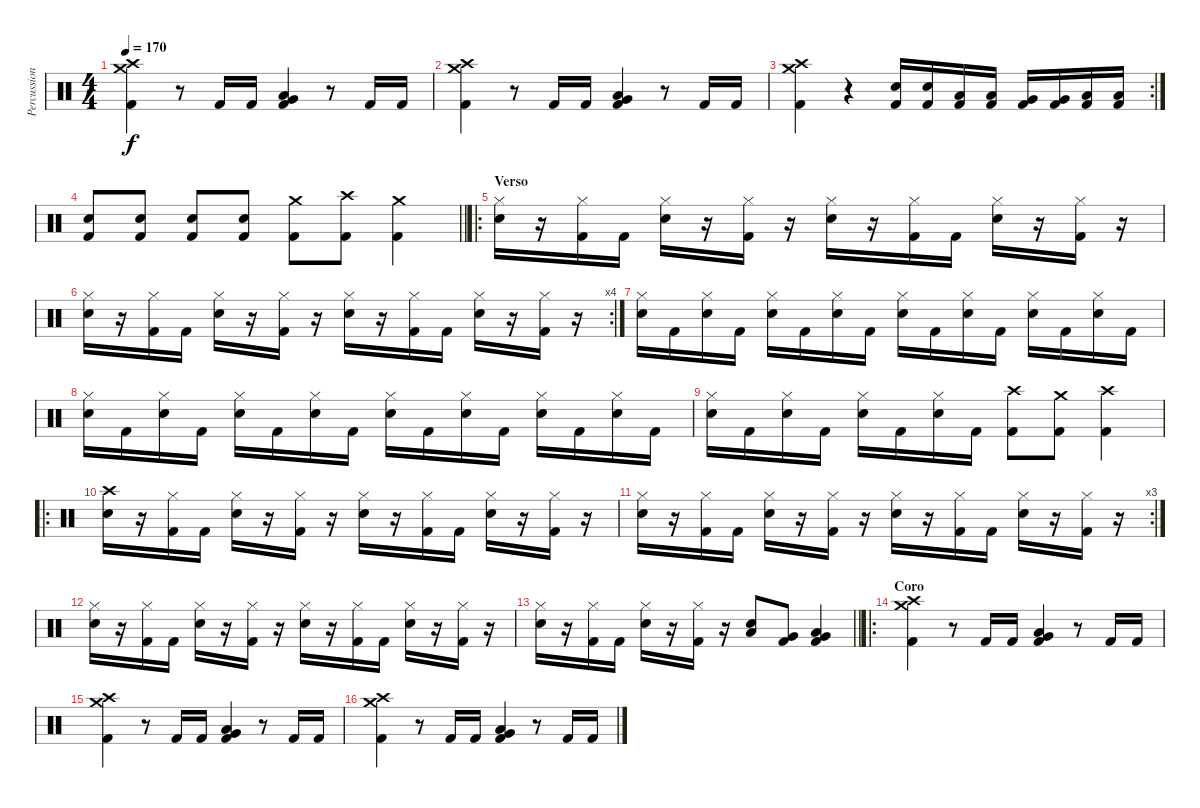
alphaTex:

\track ("Percussion" "Percussion") {instrument percussion}
\staff {score}
\articulation defaults
\ts (4 4)
\tempo 170
\clef neutral
\ks c
("Crash high (hit)" "Crash medium (hit)" "Kick (hit) 2").4{dy f} r.8 "Kick (hit) 2".16 "Kick (hit) 2".16 ("Very Low Tom (hit)" "Low Floor Tom (hit)" "Kick (hit) 2").4 r.8 "Kick (hit) 2".16 "Kick (hit) 2".16 |
("Crash high (hit)" "Crash medium (hit)" "Kick (hit) 2").4 r.8 "Kick (hit) 2".16 "Kick (hit) 2".16 ("Very Low Tom (hit)" "Low Floor Tom (hit)" "Kick (hit) 2").4 r.8 "Kick (hit) 2".16 "Kick (hit) 2".16 |
\rc 2
("Crash high (hit)" "Crash medium (hit)" "Kick (hit) 2").4 r.4 ("Snare (hit) 2" "Kick (hit) 2").16 ("Snare (hit) 2" "Kick (hit) 2").16 ("Low Tom (hit)" "Kick (hit) 2").16 ("Low Tom (hit)" "Kick (hit) 2").16 ("Very Low Tom (hit)" "Kick (hit) 2").16 ("Very Low Tom (hit)" "Kick (hit) 2").16 ("Low Floor Tom (hit)" "Kick (hit) 2").16 ("Low Floor Tom (hit)" "Kick (hit) 2").16 |
\barLineRight lightlight
("Snare (hit) 2" "Kick (hit) 2").8 ("Snare (hit) 2" "Kick (hit) 2").8 ("Snare (hit) 2" "Kick (hit) 2").8 ("Snare (hit) 2" "Kick (hit) 2").8 ("Crash medium (hit)" "Kick (hit) 2").8 ("Crash high (hit)" "Kick (hit) 2").8 ("Crash medium (hit)" "Kick (hit) 2").4 |
\ro
\section ("" "Verso")
("Hi-Hat (closed)" "Snare (hit) 2").16 r.16 ("Hi-Hat (closed)" "Kick (hit) 2").16 "Kick (hit) 2".16 ("Hi-Hat (closed)" "Snare (hit) 2").16 r.16 ("Hi-Hat (closed)" "Kick (hit) 2").16 r.16 ("Hi-Hat (closed)" "Snare (hit) 2").16 r.16 ("Hi-Hat (closed)" "Kick (hit) 2").16 "Kick (hit) 2".16 ("Hi-Hat (closed)" "Snare (hit) 2").16 r.16 ("Hi-Hat (closed)" "Kick (hit) 2").16 r.16 |
\rc 4
("Hi-Hat (closed)" "Snare (hit) 2").16 r.16 ("Hi-Hat (closed)" "Kick (hit) 2").16 "Kick (hit) 2".16 ("Hi-Hat (closed)" "Snare (hit) 2").16 r.16 ("Hi-Hat (closed)" "Kick (hit) 2").16 r.16 ("Hi-Hat (closed)" "Snare (hit) 2").16 r.16 ("Hi-Hat (closed)" "Kick (hit) 2").16 "Kick (hit) 2".16 ("Hi-Hat (closed)" "Snare (hit) 2").16 r.16 ("Hi-Hat (closed)" "Kick (hit) 2").16 r.16 |
("Hi-Hat (closed)" "Snare (hit) 2").16 "Kick (hit) 2".16 ("Hi-Hat (closed)" "Snare (hit) 2").16 "Kick (hit) 2".16 ("Hi-Hat (closed)" "Snare (hit) 2").16 "Kick (hit) 2".16 ("Hi-Hat (closed)" "Snare (hit) 2").16 "Kick (hit) 2".16 ("Hi-Hat (closed)" "Snare (hit) 2").16 "Kick (hit) 2".16 ("Hi-Hat (closed)" "Snare (hit) 2").16 "Kick (hit) 2".16 ("Hi-Hat (closed)" "Snare (hit) 2").16 "Kick (hit) 2".16 ("Hi-Hat (closed)" "Snare (hit) 2").16 "Kick (hit) 2".16 |
("Hi-Hat (closed)" "Snare (hit) 2").16 "Kick (hit) 2".16 ("Hi-Hat (closed)" "Snare (hit) 2").16 "Kick (hit) 2".16 ("Hi-Hat (closed)" "Snare (hit) 2").16 "Kick (hit) 2".16 ("Hi-Hat (closed)" "Snare (hit) 2").16 "Kick (hit) 2".16 ("Hi-Hat (closed)" "Snare (hit) 2").16 "Kick (hit) 2".16 ("Hi-Hat (closed)" "Snare (hit) 2").16 "Kick (hit) 2".16 ("Hi-Hat (closed)" "Snare (hit) 2").16 "Kick (hit) 2".16 ("Hi-Hat (closed)" "Snare (hit) 2").16 "Kick (hit) 2".16 |
("Hi-Hat (closed)" "Snare (hit) 2").16 "Kick (hit) 2".16 ("Hi-Hat (closed)" "Snare (hit) 2").16 "Kick (hit) 2".16 ("Hi-Hat (closed)" "Snare (hit) 2").16 "Kick (hit) 2".16 ("Hi-Hat (closed)" "Snare (hit) 2").16 "Kick (hit) 2".16 ("Kick (hit) 2" "Crash high (hit)").8 ("Kick (hit) 2" "Crash medium (hit)").8 ("Kick (hit) 2" "Crash high (hit)").4 |
\ro
("Crash high (hit)" "Snare (hit) 2").16 r.16 ("Hi-Hat (closed)" "Kick (hit) 2").16 "Kick (hit) 2".16 ("Hi-Hat (closed)" "Snare (hit) 2").16 r.16 ("Hi-Hat (closed)" "Kick (hit) 2").16 r.16 ("Hi-Hat (closed)" "Snare (hit) 2").16 r.16 ("Hi-Hat (closed)" "Kick (hit) 2").16 "Kick (hit) 2".16 ("Hi-Hat (closed)" "Snare (hit) 2").16 r.16 ("Hi-Hat (closed)" "Kick (hit) 2").16 r.16 |
\rc 3
("Hi-Hat (closed)" "Snare (hit) 2").16 r.16 ("Hi-Hat (closed)" "Kick (hit) 2").16 "Kick (hit) 2".16 ("Hi-Hat (closed)" "Snare (hit) 2").16 r.16 ("Hi-Hat (closed)" "Kick (hit) 2").16 r.16 ("Hi-Hat (closed)" "Snare (hit) 2").16 r.16 ("Hi-Hat (closed)" "Kick (hit) 2").16 "Kick (hit) 2".16 ("Hi-Hat (closed)" "Snare (hit) 2").16 r.16 ("Hi-Hat (closed)" "Kick (hit) 2").16 r.16 |
("Hi-Hat (closed)" "Snare (hit) 2").16 r.16 ("Hi-Hat (closed)" "Kick (hit) 2").16 "Kick (hit) 2".16 ("Hi-Hat (closed)" "Snare (hit) 2").16 r.16 ("Hi-Hat (closed)" "Kick (hit) 2").16 r.16 ("Hi-Hat (closed)" "Snare (hit) 2").16 r.16 ("Hi-Hat (closed)" "Kick (hit) 2").16 "Kick (hit) 2".16 ("Hi-Hat (closed)" "Snare (hit) 2").16 r.16 ("Hi-Hat (closed)" "Kick (hit) 2").16 r.16 |
\barLineRight lightlight
("Hi-Hat (closed)" "Snare (hit) 2").16 r.16 ("Hi-Hat (closed)" "Kick (hit) 2").16 "Kick (hit) 2".16 ("Hi-Hat (closed)" "Snare (hit) 2").16 r.16 ("Hi-Hat (closed)" "Kick (hit) 2").16 r.16 ("Low Tom (hit)" "Snare (hit) 2").8 ("Very Low Tom (hit)" "Kick (hit) 2").8 ("Very Low Tom (hit)" "Low Floor Tom (hit)" "Kick (hit) 2").4 |
\ro
\section ("" "Coro")
("Crash high (hit)" "Crash medium (hit)" "Kick (hit) 2").4 r.8 "Kick (hit) 2".16 "Kick (hit) 2".16 ("Very Low Tom (hit)" "Low Floor Tom (hit)" "Kick (hit) 2").4 r.8 "Kick (hit) 2".16 "Kick (hit) 2".16 |
("Crash high (hit)" "Crash medium (hit)" "Kick (hit) 2").4 r.8 "Kick (hit) 2".16 "Kick (hit) 2".16 ("Very Low Tom (hit)" "Low Floor Tom (hit)" "Kick (hit) 2").4 r.8 "Kick (hit) 2".16 "Kick (hit) 2".16 |
("Crash high (hit)" "Crash medium (hit)" "Kick (hit) 2").4 r.8 "Kick (hit) 2".16 "Kick (hit) 2".16 ("Very Low Tom (hit)" "Low Floor Tom (hit)" "Kick (hit) 2").4 r.8 "Kick (hit) 2".16 "Kick (hit) 2".16
